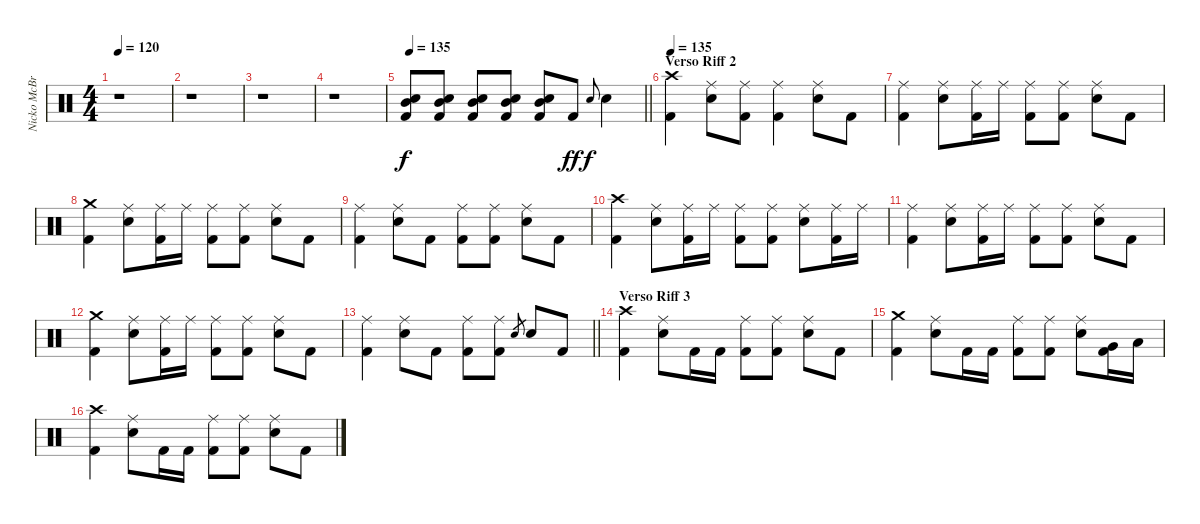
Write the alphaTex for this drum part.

\track ("Nicko McBrain" "Nicko McBr") {instrument percussion}
\staff {score}
\articulation defaults
\ts (4 4)
\tempo 120
\clef neutral
\ks c
r.1{dy f} |
r.1 |
r.1 |
r.1 |
\tempo 135
\barLineRight lightlight
("Snare (hit) 2" "Mid Tom (hit)" "Kick (hit) 2").8 ("Snare (hit) 2" "Mid Tom (hit)" "Kick (hit) 2").8 ("Snare (hit) 2" "Mid Tom (hit)" "Kick (hit) 2").8 ("Snare (hit) 2" "Mid Tom (hit)" "Kick (hit) 2").8 ("Snare (hit) 2" "Mid Tom (hit)" "Kick (hit) 2").8 "Kick (hit) 2".8{dy ff} "Snare (hit) 2".8{gr onbeat dy f} "Snare (hit) 2".4 |
\section ("" "Verso Riff 2")
\tempo 135
("Crash high (hit)" "Kick (hit) 2").4 ("Ride (middle)" "Snare (hit) 2").8 ("Ride (middle)" "Kick (hit) 2").8 ("Ride (middle)" "Kick (hit) 2").4 ("Ride (middle)" "Snare (hit) 2").8 "Kick (hit) 2".8 |
("Ride (middle)" "Kick (hit) 2").4 ("Ride (middle)" "Snare (hit) 2").8 ("Ride (middle)" "Kick (hit) 2").16 "Ride (middle)".16 ("Ride (middle)" "Kick (hit) 2").8 ("Ride (middle)" "Kick (hit) 2").8 ("Ride (middle)" "Snare (hit) 2").8 "Kick (hit) 2".8 |
("Crash medium (hit)" "Kick (hit) 2").4 ("Ride (middle)" "Snare (hit) 2").8 ("Ride (middle)" "Kick (hit) 2").16 "Ride (middle)".16 ("Ride (middle)" "Kick (hit) 2").8 ("Ride (middle)" "Kick (hit) 2").8 ("Ride (middle)" "Snare (hit) 2").8 "Kick (hit) 2".8 |
("Ride (middle)" "Kick (hit) 2").4 ("Ride (middle)" "Snare (hit) 2").8 "Kick (hit) 2".8 ("Ride (middle)" "Kick (hit) 2").8 ("Ride (middle)" "Kick (hit) 2").8 ("Ride (middle)" "Snare (hit) 2").8 "Kick (hit) 2".8 |
("Crash high (hit)" "Kick (hit) 2").4 ("Ride (middle)" "Snare (hit) 2").8 ("Ride (middle)" "Kick (hit) 2").16 "Ride (middle)".16 ("Ride (middle)" "Kick (hit) 2").8 ("Ride (middle)" "Kick (hit) 2").8 ("Ride (middle)" "Snare (hit) 2").8 ("Ride (middle)" "Kick (hit) 2").16 "Ride (middle)".16 |
("Ride (middle)" "Kick (hit) 2").4 ("Ride (middle)" "Snare (hit) 2").8 ("Ride (middle)" "Kick (hit) 2").16 "Ride (middle)".16 ("Ride (middle)" "Kick (hit) 2").8 ("Ride (middle)" "Kick (hit) 2").8 ("Ride (middle)" "Snare (hit) 2").8 "Kick (hit) 2".8 |
("Crash medium (hit)" "Kick (hit) 2").4 ("Ride (middle)" "Snare (hit) 2").8 ("Ride (middle)" "Kick (hit) 2").16 "Ride (middle)".16 ("Ride (middle)" "Kick (hit) 2").8 ("Ride (middle)" "Kick (hit) 2").8 ("Ride (middle)" "Snare (hit) 2").8 "Kick (hit) 2".8 |
\barLineRight lightlight
("Ride (middle)" "Kick (hit) 2").4 ("Ride (middle)" "Snare (hit) 2").8 "Kick (hit) 2".8 ("Ride (middle)" "Kick (hit) 2").8 ("Ride (middle)" "Kick (hit) 2").8 "Snare (hit) 2".8{gr} "Snare (hit) 2".8 "Kick (hit) 2".8 |
\section ("" "Verso Riff 3")
("Crash high (hit)" "Kick (hit) 2").4 ("Ride (middle)" "Snare (hit) 2").8 "Kick (hit) 2".16 "Kick (hit) 2".16 ("Ride (middle)" "Kick (hit) 2").8 ("Ride (middle)" "Kick (hit) 2").8 ("Ride (middle)" "Snare (hit) 2").8 "Kick (hit) 2".8 |
("Crash medium (hit)" "Kick (hit) 2").4 ("Ride (middle)" "Snare (hit) 2").8 "Kick (hit) 2".16 "Kick (hit) 2".16 ("Ride (middle)" "Kick (hit) 2").8 ("Ride (middle)" "Kick (hit) 2").8 ("Ride (middle)" "Snare (hit) 2").8 ("Very Low Tom (hit)" "Kick (hit) 2").16 "Low Floor Tom (hit)".16 |
("Crash high (hit)" "Kick (hit) 2").4 ("Ride (middle)" "Snare (hit) 2").8 "Kick (hit) 2".16 "Kick (hit) 2".16 ("Ride (middle)" "Kick (hit) 2").8 ("Ride (middle)" "Kick (hit) 2").8 ("Ride (middle)" "Snare (hit) 2").8 "Kick (hit) 2".8
